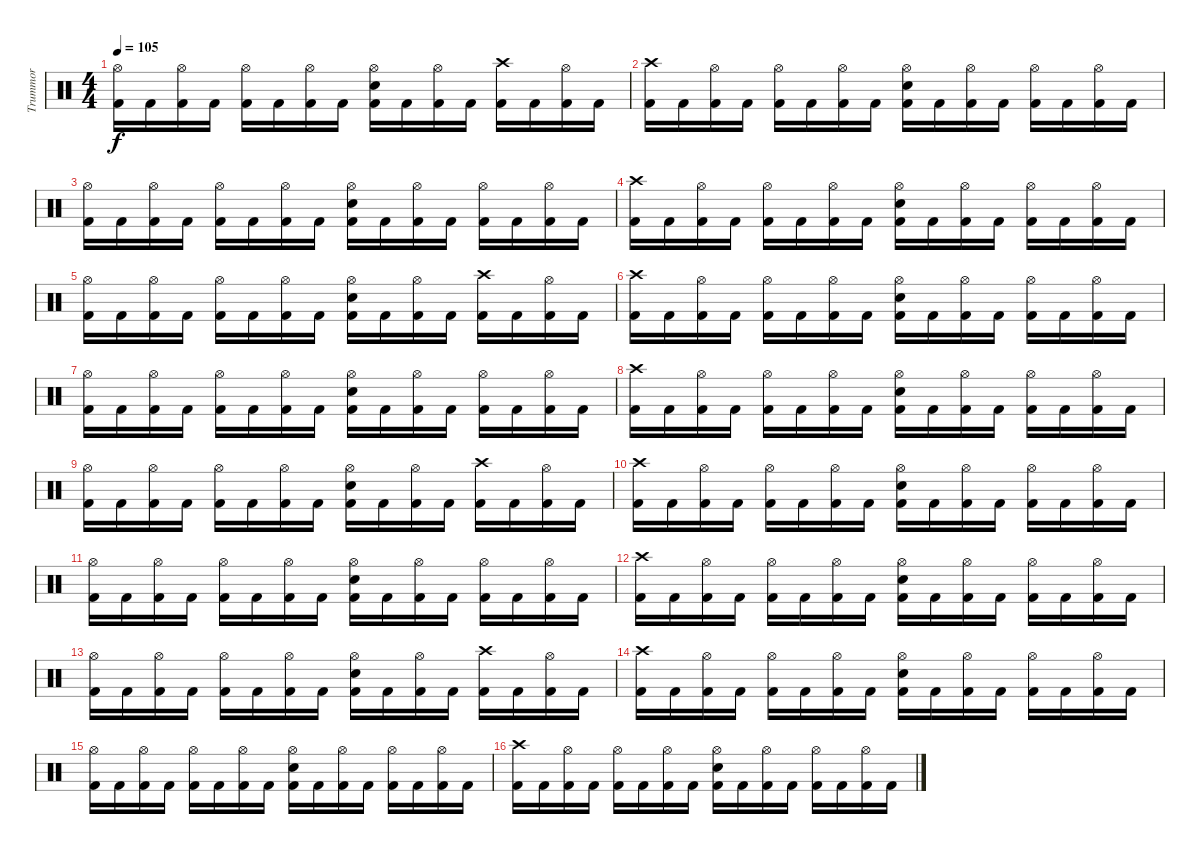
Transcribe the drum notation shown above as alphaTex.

\track ("Trummor" "Trummor") {instrument percussion}
\staff {score}
\articulation defaults
\ts (4 4)
\tempo 105
\clef neutral
\ks c
("Hi-Hat (open)" "Kick (hit) 2").16{dy f} "Kick (hit) 2".16 ("Hi-Hat (open)" "Kick (hit) 2").16 "Kick (hit) 2".16 ("Hi-Hat (open)" "Kick (hit) 2").16 "Kick (hit) 2".16 ("Hi-Hat (open)" "Kick (hit) 2").16 "Kick (hit) 2".16 ("Hi-Hat (open)" "Snare (hit) 2" "Kick (hit) 2").16 "Kick (hit) 2".16 ("Hi-Hat (open)" "Kick (hit) 2").16 "Kick (hit) 2".16 ("Crash high (hit)" "Kick (hit) 2").16 "Kick (hit) 2".16 ("Hi-Hat (open)" "Kick (hit) 2").16 "Kick (hit) 2".16 |
("Crash high (hit)" "Kick (hit) 2").16 "Kick (hit) 2".16 ("Hi-Hat (open)" "Kick (hit) 2").16 "Kick (hit) 2".16 ("Hi-Hat (open)" "Kick (hit) 2").16 "Kick (hit) 2".16 ("Hi-Hat (open)" "Kick (hit) 2").16 "Kick (hit) 2".16 ("Hi-Hat (open)" "Snare (hit) 2" "Kick (hit) 2").16 "Kick (hit) 2".16 ("Hi-Hat (open)" "Kick (hit) 2").16 "Kick (hit) 2".16 ("Hi-Hat (open)" "Kick (hit) 2").16 "Kick (hit) 2".16 ("Hi-Hat (open)" "Kick (hit) 2").16 "Kick (hit) 2".16 |
("Hi-Hat (open)" "Kick (hit) 2").16 "Kick (hit) 2".16 ("Hi-Hat (open)" "Kick (hit) 2").16 "Kick (hit) 2".16 ("Hi-Hat (open)" "Kick (hit) 2").16 "Kick (hit) 2".16 ("Hi-Hat (open)" "Kick (hit) 2").16 "Kick (hit) 2".16 ("Hi-Hat (open)" "Snare (hit) 2" "Kick (hit) 2").16 "Kick (hit) 2".16 ("Hi-Hat (open)" "Kick (hit) 2").16 "Kick (hit) 2".16 ("Hi-Hat (open)" "Kick (hit) 2").16 "Kick (hit) 2".16 ("Hi-Hat (open)" "Kick (hit) 2").16 "Kick (hit) 2".16 |
("Crash high (hit)" "Kick (hit) 2").16 "Kick (hit) 2".16 ("Hi-Hat (open)" "Kick (hit) 2").16 "Kick (hit) 2".16 ("Hi-Hat (open)" "Kick (hit) 2").16 "Kick (hit) 2".16 ("Hi-Hat (open)" "Kick (hit) 2").16 "Kick (hit) 2".16 ("Hi-Hat (open)" "Snare (hit) 2" "Kick (hit) 2").16 "Kick (hit) 2".16 ("Hi-Hat (open)" "Kick (hit) 2").16 "Kick (hit) 2".16 ("Hi-Hat (open)" "Kick (hit) 2").16 "Kick (hit) 2".16 ("Hi-Hat (open)" "Kick (hit) 2").16 "Kick (hit) 2".16 |
("Hi-Hat (open)" "Kick (hit) 2").16 "Kick (hit) 2".16 ("Hi-Hat (open)" "Kick (hit) 2").16 "Kick (hit) 2".16 ("Hi-Hat (open)" "Kick (hit) 2").16 "Kick (hit) 2".16 ("Hi-Hat (open)" "Kick (hit) 2").16 "Kick (hit) 2".16 ("Hi-Hat (open)" "Snare (hit) 2" "Kick (hit) 2").16 "Kick (hit) 2".16 ("Hi-Hat (open)" "Kick (hit) 2").16 "Kick (hit) 2".16 ("Crash high (hit)" "Kick (hit) 2").16 "Kick (hit) 2".16 ("Hi-Hat (open)" "Kick (hit) 2").16 "Kick (hit) 2".16 |
("Crash high (hit)" "Kick (hit) 2").16 "Kick (hit) 2".16 ("Hi-Hat (open)" "Kick (hit) 2").16 "Kick (hit) 2".16 ("Hi-Hat (open)" "Kick (hit) 2").16 "Kick (hit) 2".16 ("Hi-Hat (open)" "Kick (hit) 2").16 "Kick (hit) 2".16 ("Hi-Hat (open)" "Snare (hit) 2" "Kick (hit) 2").16 "Kick (hit) 2".16 ("Hi-Hat (open)" "Kick (hit) 2").16 "Kick (hit) 2".16 ("Hi-Hat (open)" "Kick (hit) 2").16 "Kick (hit) 2".16 ("Hi-Hat (open)" "Kick (hit) 2").16 "Kick (hit) 2".16 |
("Hi-Hat (open)" "Kick (hit) 2").16 "Kick (hit) 2".16 ("Hi-Hat (open)" "Kick (hit) 2").16 "Kick (hit) 2".16 ("Hi-Hat (open)" "Kick (hit) 2").16 "Kick (hit) 2".16 ("Hi-Hat (open)" "Kick (hit) 2").16 "Kick (hit) 2".16 ("Hi-Hat (open)" "Snare (hit) 2" "Kick (hit) 2").16 "Kick (hit) 2".16 ("Hi-Hat (open)" "Kick (hit) 2").16 "Kick (hit) 2".16 ("Hi-Hat (open)" "Kick (hit) 2").16 "Kick (hit) 2".16 ("Hi-Hat (open)" "Kick (hit) 2").16 "Kick (hit) 2".16 |
("Crash high (hit)" "Kick (hit) 2").16 "Kick (hit) 2".16 ("Hi-Hat (open)" "Kick (hit) 2").16 "Kick (hit) 2".16 ("Hi-Hat (open)" "Kick (hit) 2").16 "Kick (hit) 2".16 ("Hi-Hat (open)" "Kick (hit) 2").16 "Kick (hit) 2".16 ("Hi-Hat (open)" "Snare (hit) 2" "Kick (hit) 2").16 "Kick (hit) 2".16 ("Hi-Hat (open)" "Kick (hit) 2").16 "Kick (hit) 2".16 ("Hi-Hat (open)" "Kick (hit) 2").16 "Kick (hit) 2".16 ("Hi-Hat (open)" "Kick (hit) 2").16 "Kick (hit) 2".16 |
("Hi-Hat (open)" "Kick (hit) 2").16 "Kick (hit) 2".16 ("Hi-Hat (open)" "Kick (hit) 2").16 "Kick (hit) 2".16 ("Hi-Hat (open)" "Kick (hit) 2").16 "Kick (hit) 2".16 ("Hi-Hat (open)" "Kick (hit) 2").16 "Kick (hit) 2".16 ("Hi-Hat (open)" "Snare (hit) 2" "Kick (hit) 2").16 "Kick (hit) 2".16 ("Hi-Hat (open)" "Kick (hit) 2").16 "Kick (hit) 2".16 ("Crash high (hit)" "Kick (hit) 2").16 "Kick (hit) 2".16 ("Hi-Hat (open)" "Kick (hit) 2").16 "Kick (hit) 2".16 |
("Crash high (hit)" "Kick (hit) 2").16 "Kick (hit) 2".16 ("Hi-Hat (open)" "Kick (hit) 2").16 "Kick (hit) 2".16 ("Hi-Hat (open)" "Kick (hit) 2").16 "Kick (hit) 2".16 ("Hi-Hat (open)" "Kick (hit) 2").16 "Kick (hit) 2".16 ("Hi-Hat (open)" "Snare (hit) 2" "Kick (hit) 2").16 "Kick (hit) 2".16 ("Hi-Hat (open)" "Kick (hit) 2").16 "Kick (hit) 2".16 ("Hi-Hat (open)" "Kick (hit) 2").16 "Kick (hit) 2".16 ("Hi-Hat (open)" "Kick (hit) 2").16 "Kick (hit) 2".16 |
("Hi-Hat (open)" "Kick (hit) 2").16 "Kick (hit) 2".16 ("Hi-Hat (open)" "Kick (hit) 2").16 "Kick (hit) 2".16 ("Hi-Hat (open)" "Kick (hit) 2").16 "Kick (hit) 2".16 ("Hi-Hat (open)" "Kick (hit) 2").16 "Kick (hit) 2".16 ("Hi-Hat (open)" "Snare (hit) 2" "Kick (hit) 2").16 "Kick (hit) 2".16 ("Hi-Hat (open)" "Kick (hit) 2").16 "Kick (hit) 2".16 ("Hi-Hat (open)" "Kick (hit) 2").16 "Kick (hit) 2".16 ("Hi-Hat (open)" "Kick (hit) 2").16 "Kick (hit) 2".16 |
("Crash high (hit)" "Kick (hit) 2").16 "Kick (hit) 2".16 ("Hi-Hat (open)" "Kick (hit) 2").16 "Kick (hit) 2".16 ("Hi-Hat (open)" "Kick (hit) 2").16 "Kick (hit) 2".16 ("Hi-Hat (open)" "Kick (hit) 2").16 "Kick (hit) 2".16 ("Hi-Hat (open)" "Snare (hit) 2" "Kick (hit) 2").16 "Kick (hit) 2".16 ("Hi-Hat (open)" "Kick (hit) 2").16 "Kick (hit) 2".16 ("Hi-Hat (open)" "Kick (hit) 2").16 "Kick (hit) 2".16 ("Hi-Hat (open)" "Kick (hit) 2").16 "Kick (hit) 2".16 |
("Hi-Hat (open)" "Kick (hit) 2").16 "Kick (hit) 2".16 ("Hi-Hat (open)" "Kick (hit) 2").16 "Kick (hit) 2".16 ("Hi-Hat (open)" "Kick (hit) 2").16 "Kick (hit) 2".16 ("Hi-Hat (open)" "Kick (hit) 2").16 "Kick (hit) 2".16 ("Hi-Hat (open)" "Snare (hit) 2" "Kick (hit) 2").16 "Kick (hit) 2".16 ("Hi-Hat (open)" "Kick (hit) 2").16 "Kick (hit) 2".16 ("Crash high (hit)" "Kick (hit) 2").16 "Kick (hit) 2".16 ("Hi-Hat (open)" "Kick (hit) 2").16 "Kick (hit) 2".16 |
("Crash high (hit)" "Kick (hit) 2").16 "Kick (hit) 2".16 ("Hi-Hat (open)" "Kick (hit) 2").16 "Kick (hit) 2".16 ("Hi-Hat (open)" "Kick (hit) 2").16 "Kick (hit) 2".16 ("Hi-Hat (open)" "Kick (hit) 2").16 "Kick (hit) 2".16 ("Hi-Hat (open)" "Snare (hit) 2" "Kick (hit) 2").16 "Kick (hit) 2".16 ("Hi-Hat (open)" "Kick (hit) 2").16 "Kick (hit) 2".16 ("Hi-Hat (open)" "Kick (hit) 2").16 "Kick (hit) 2".16 ("Hi-Hat (open)" "Kick (hit) 2").16 "Kick (hit) 2".16 |
("Hi-Hat (open)" "Kick (hit) 2").16 "Kick (hit) 2".16 ("Hi-Hat (open)" "Kick (hit) 2").16 "Kick (hit) 2".16 ("Hi-Hat (open)" "Kick (hit) 2").16 "Kick (hit) 2".16 ("Hi-Hat (open)" "Kick (hit) 2").16 "Kick (hit) 2".16 ("Hi-Hat (open)" "Snare (hit) 2" "Kick (hit) 2").16 "Kick (hit) 2".16 ("Hi-Hat (open)" "Kick (hit) 2").16 "Kick (hit) 2".16 ("Hi-Hat (open)" "Kick (hit) 2").16 "Kick (hit) 2".16 ("Hi-Hat (open)" "Kick (hit) 2").16 "Kick (hit) 2".16 |
("Crash high (hit)" "Kick (hit) 2").16 "Kick (hit) 2".16 ("Hi-Hat (open)" "Kick (hit) 2").16 "Kick (hit) 2".16 ("Hi-Hat (open)" "Kick (hit) 2").16 "Kick (hit) 2".16 ("Hi-Hat (open)" "Kick (hit) 2").16 "Kick (hit) 2".16 ("Hi-Hat (open)" "Snare (hit) 2" "Kick (hit) 2").16 "Kick (hit) 2".16 ("Hi-Hat (open)" "Kick (hit) 2").16 "Kick (hit) 2".16 ("Hi-Hat (open)" "Kick (hit) 2").16 "Kick (hit) 2".16 ("Hi-Hat (open)" "Kick (hit) 2").16 "Kick (hit) 2".16
